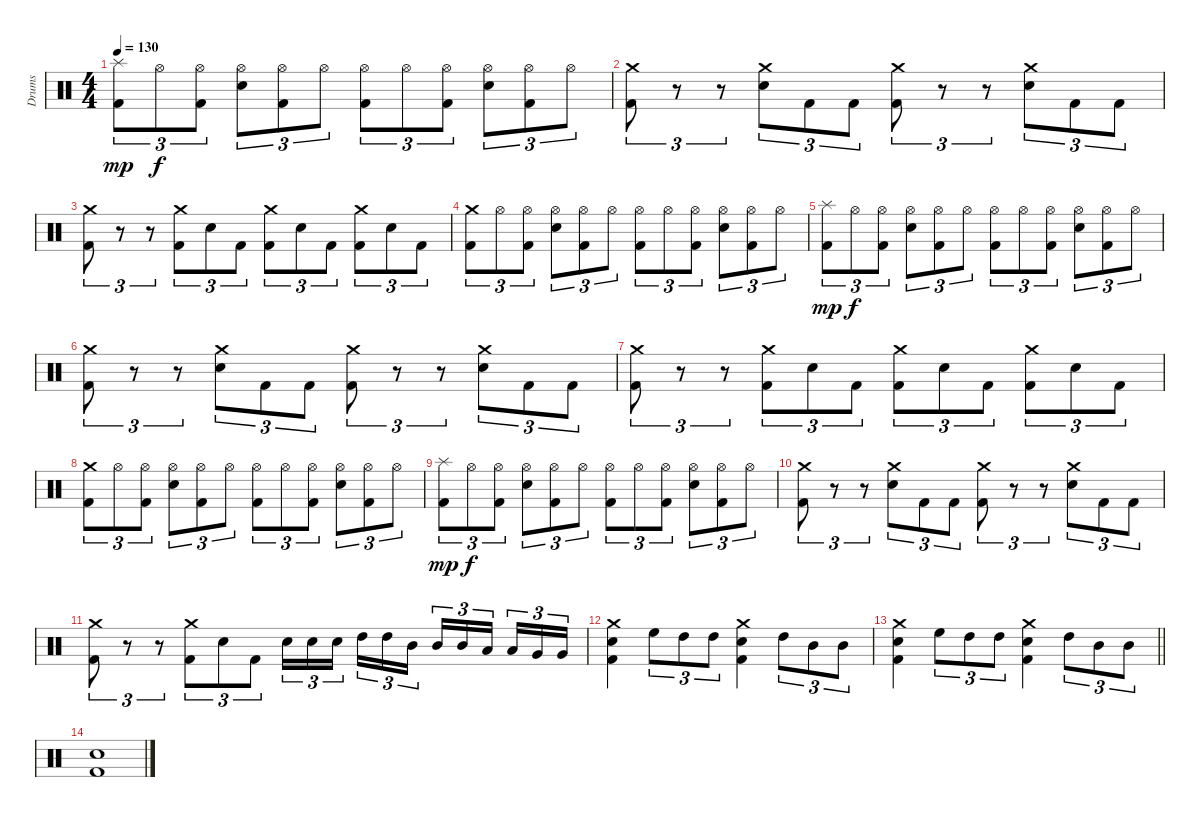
\track ("Drums" "Drums") {instrument percussion}
\staff {score}
\articulation defaults
\ts (4 4)
\tempo 130
\clef neutral
\ks c
("Kick (hit) 2" "Splash (hit)").8{tu (3 2) dy mp} "Hi-Hat (open)".8{tu (3 2) dy f} ("Kick (hit) 2" "Hi-Hat (open)").8{tu (3 2)} ("Electric Snare (hit)" "Hi-Hat (open)").8{tu (3 2)} ("Kick (hit) 2" "Hi-Hat (open)").8{tu (3 2)} "Hi-Hat (open)".8{tu (3 2)} ("Kick (hit) 2" "Hi-Hat (open)").8{tu (3 2)} "Hi-Hat (open)".8{tu (3 2)} ("Kick (hit) 2" "Hi-Hat (open)").8{tu (3 2)} ("Electric Snare (hit)" "Hi-Hat (open)").8{tu (3 2)} ("Kick (hit) 2" "Hi-Hat (open)").8{tu (3 2)} "Hi-Hat (open)".8{tu (3 2)} |
("Kick (hit) 2" "Crash medium (hit)").8{tu (3 2)} r.8{tu (3 2)} r.8{tu (3 2)} ("Electric Snare (hit)" "Crash medium (hit)").8{tu (3 2)} "Kick (hit) 2".8{tu (3 2)} "Kick (hit) 2".8{tu (3 2)} ("Kick (hit) 2" "Crash medium (hit)").8{tu (3 2)} r.8{tu (3 2)} r.8{tu (3 2)} ("Electric Snare (hit)" "Crash medium (hit)").8{tu (3 2)} "Kick (hit) 2".8{tu (3 2)} "Kick (hit) 2".8{tu (3 2)} |
("Kick (hit) 2" "Crash medium (hit)").8{tu (3 2)} r.8{tu (3 2)} r.8{tu (3 2)} ("Kick (hit) 2" "Crash medium (hit)").8{tu (3 2)} "Electric Snare (hit)".8{tu (3 2)} "Kick (hit) 2".8{tu (3 2)} ("Kick (hit) 2" "Crash medium (hit)").8{tu (3 2)} "Electric Snare (hit)".8{tu (3 2)} "Kick (hit) 2".8{tu (3 2)} ("Kick (hit) 2" "Crash medium (hit)").8{tu (3 2)} "Electric Snare (hit)".8{tu (3 2)} "Kick (hit) 2".8{tu (3 2)} |
("Kick (hit) 2" "Crash medium (hit)").8{tu (3 2)} "Hi-Hat (open)".8{tu (3 2)} ("Kick (hit) 2" "Hi-Hat (open)").8{tu (3 2)} ("Electric Snare (hit)" "Hi-Hat (open)").8{tu (3 2)} ("Kick (hit) 2" "Hi-Hat (open)").8{tu (3 2)} "Hi-Hat (open)".8{tu (3 2)} ("Kick (hit) 2" "Hi-Hat (open)").8{tu (3 2)} "Hi-Hat (open)".8{tu (3 2)} ("Kick (hit) 2" "Hi-Hat (open)").8{tu (3 2)} ("Electric Snare (hit)" "Hi-Hat (open)").8{tu (3 2)} ("Kick (hit) 2" "Hi-Hat (open)").8{tu (3 2)} "Hi-Hat (open)".8{tu (3 2)} |
("Kick (hit) 2" "Splash (hit)").8{tu (3 2) dy mp} "Hi-Hat (open)".8{tu (3 2) dy f} ("Kick (hit) 2" "Hi-Hat (open)").8{tu (3 2)} ("Electric Snare (hit)" "Hi-Hat (open)").8{tu (3 2)} ("Kick (hit) 2" "Hi-Hat (open)").8{tu (3 2)} "Hi-Hat (open)".8{tu (3 2)} ("Kick (hit) 2" "Hi-Hat (open)").8{tu (3 2)} "Hi-Hat (open)".8{tu (3 2)} ("Kick (hit) 2" "Hi-Hat (open)").8{tu (3 2)} ("Electric Snare (hit)" "Hi-Hat (open)").8{tu (3 2)} ("Kick (hit) 2" "Hi-Hat (open)").8{tu (3 2)} "Hi-Hat (open)".8{tu (3 2)} |
("Kick (hit) 2" "Crash medium (hit)").8{tu (3 2)} r.8{tu (3 2)} r.8{tu (3 2)} ("Electric Snare (hit)" "Crash medium (hit)").8{tu (3 2)} "Kick (hit) 2".8{tu (3 2)} "Kick (hit) 2".8{tu (3 2)} ("Kick (hit) 2" "Crash medium (hit)").8{tu (3 2)} r.8{tu (3 2)} r.8{tu (3 2)} ("Electric Snare (hit)" "Crash medium (hit)").8{tu (3 2)} "Kick (hit) 2".8{tu (3 2)} "Kick (hit) 2".8{tu (3 2)} |
("Kick (hit) 2" "Crash medium (hit)").8{tu (3 2)} r.8{tu (3 2)} r.8{tu (3 2)} ("Kick (hit) 2" "Crash medium (hit)").8{tu (3 2)} "Electric Snare (hit)".8{tu (3 2)} "Kick (hit) 2".8{tu (3 2)} ("Kick (hit) 2" "Crash medium (hit)").8{tu (3 2)} "Electric Snare (hit)".8{tu (3 2)} "Kick (hit) 2".8{tu (3 2)} ("Kick (hit) 2" "Crash medium (hit)").8{tu (3 2)} "Electric Snare (hit)".8{tu (3 2)} "Kick (hit) 2".8{tu (3 2)} |
("Kick (hit) 2" "Crash medium (hit)").8{tu (3 2)} "Hi-Hat (open)".8{tu (3 2)} ("Kick (hit) 2" "Hi-Hat (open)").8{tu (3 2)} ("Electric Snare (hit)" "Hi-Hat (open)").8{tu (3 2)} ("Kick (hit) 2" "Hi-Hat (open)").8{tu (3 2)} "Hi-Hat (open)".8{tu (3 2)} ("Kick (hit) 2" "Hi-Hat (open)").8{tu (3 2)} "Hi-Hat (open)".8{tu (3 2)} ("Kick (hit) 2" "Hi-Hat (open)").8{tu (3 2)} ("Electric Snare (hit)" "Hi-Hat (open)").8{tu (3 2)} ("Kick (hit) 2" "Hi-Hat (open)").8{tu (3 2)} "Hi-Hat (open)".8{tu (3 2)} |
("Kick (hit) 2" "Splash (hit)").8{tu (3 2) dy mp} "Hi-Hat (open)".8{tu (3 2) dy f} ("Kick (hit) 2" "Hi-Hat (open)").8{tu (3 2)} ("Electric Snare (hit)" "Hi-Hat (open)").8{tu (3 2)} ("Kick (hit) 2" "Hi-Hat (open)").8{tu (3 2)} "Hi-Hat (open)".8{tu (3 2)} ("Kick (hit) 2" "Hi-Hat (open)").8{tu (3 2)} "Hi-Hat (open)".8{tu (3 2)} ("Kick (hit) 2" "Hi-Hat (open)").8{tu (3 2)} ("Electric Snare (hit)" "Hi-Hat (open)").8{tu (3 2)} ("Kick (hit) 2" "Hi-Hat (open)").8{tu (3 2)} "Hi-Hat (open)".8{tu (3 2)} |
("Kick (hit) 2" "Crash medium (hit)").8{tu (3 2)} r.8{tu (3 2)} r.8{tu (3 2)} ("Electric Snare (hit)" "Crash medium (hit)").8{tu (3 2)} "Kick (hit) 2".8{tu (3 2)} "Kick (hit) 2".8{tu (3 2)} ("Kick (hit) 2" "Crash medium (hit)").8{tu (3 2)} r.8{tu (3 2)} r.8{tu (3 2)} ("Electric Snare (hit)" "Crash medium (hit)").8{tu (3 2)} "Kick (hit) 2".8{tu (3 2)} "Kick (hit) 2".8{tu (3 2)} |
("Kick (hit) 2" "Crash medium (hit)").8{tu (3 2)} r.8{tu (3 2)} r.8{tu (3 2)} ("Kick (hit) 2" "Crash medium (hit)").8{tu (3 2)} "Electric Snare (hit)".8{tu (3 2)} "Kick (hit) 2".8{tu (3 2)} "Electric Snare (hit)".16{tu (3 2)} "Electric Snare (hit)".16{tu (3 2)} "Electric Snare (hit)".16{tu (3 2)} "High Tom (hit)".16{tu (3 2)} "High Tom (hit)".16{tu (3 2)} "Mid Tom (hit)".16{tu (3 2)} "Mid Tom (hit)".16{tu (3 2)} "Mid Tom (hit)".16{tu (3 2)} "Low Tom (hit)".16{tu (3 2)} "Low Tom (hit)".16{tu (3 2)} "Very Low Tom (hit)".16{tu (3 2)} "Very Low Tom (hit)".16{tu (3 2)} |
("Crash medium (hit)" "Electric Snare (hit)" "Kick (hit) 2").4 "High Floor Tom (hit)".8{tu (3 2)} "High Tom (hit)".8{tu (3 2)} "High Tom (hit)".8{tu (3 2)} ("Crash medium (hit)" "Electric Snare (hit)" "Kick (hit) 2").4 "High Tom (hit)".8{tu (3 2)} "Mid Tom (hit)".8{tu (3 2)} "Mid Tom (hit)".8{tu (3 2)} |
\barLineRight lightlight
("Crash medium (hit)" "Electric Snare (hit)" "Kick (hit) 2").4 "High Floor Tom (hit)".8{tu (3 2)} "High Tom (hit)".8{tu (3 2)} "High Tom (hit)".8{tu (3 2)} ("Crash medium (hit)" "Electric Snare (hit)" "Kick (hit) 2").4 "High Tom (hit)".8{tu (3 2)} "Mid Tom (hit)".8{tu (3 2)} "Mid Tom (hit)".8{tu (3 2)} |
("Kick (hit) 2" "Electric Snare (hit)").1
